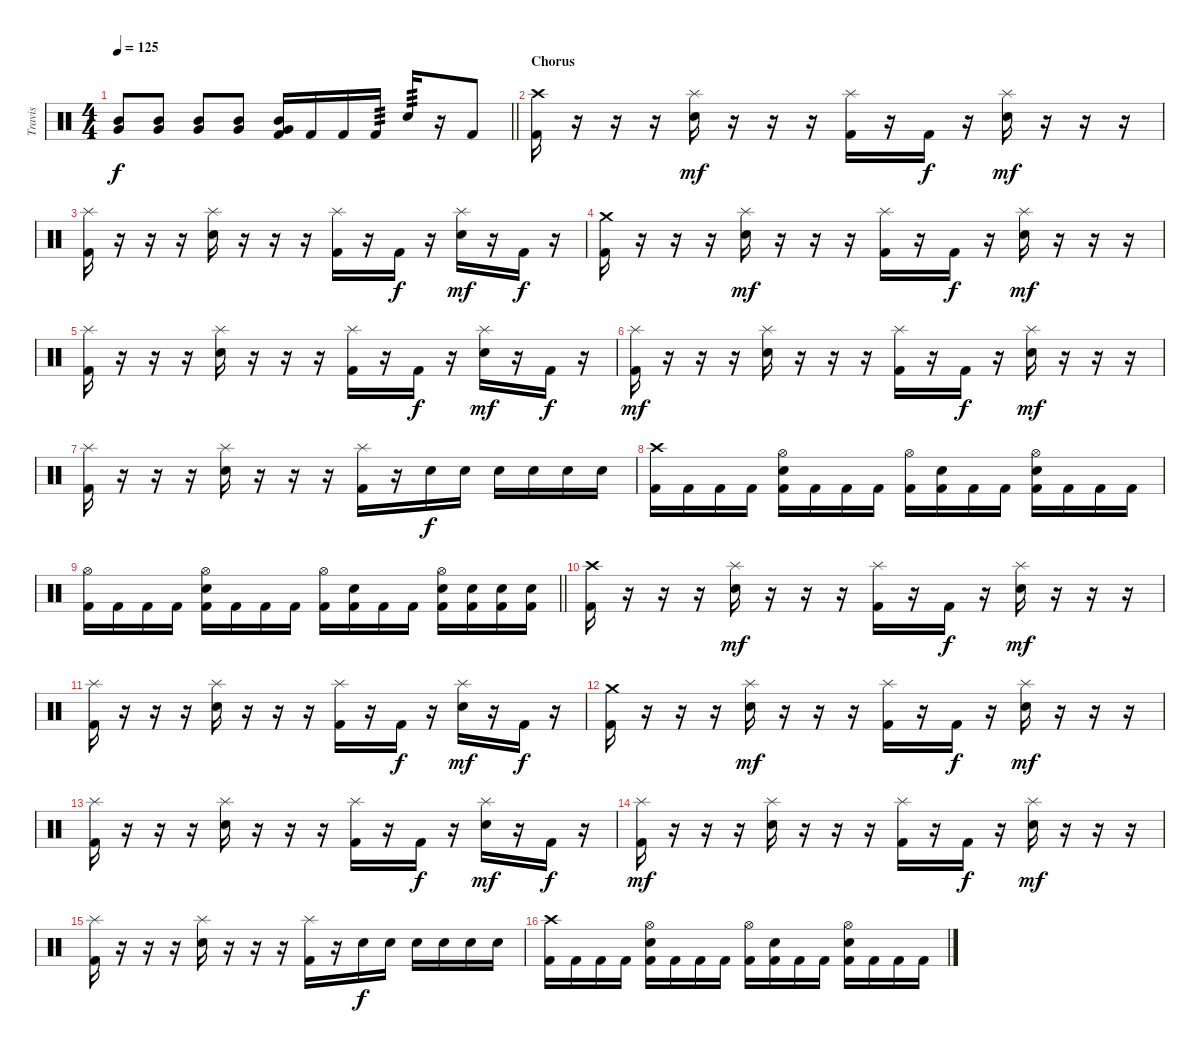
\track ("Travis" "Travis") {instrument percussion}
\staff {score}
\articulation defaults
\ts (4 4)
\tempo 125
\clef neutral
\barLineRight lightlight
\ks c
("Mid Tom (hit)" "Very Low Tom (hit)").8{dy f} ("Mid Tom (hit)" "Very Low Tom (hit)").8 ("Mid Tom (hit)" "Very Low Tom (hit)").8 ("Mid Tom (hit)" "Very Low Tom (hit)").8 ("Very Low Tom (hit)" "Mid Tom (hit)" "Kick (hit) 2").16 "Kick (hit) 2".16 "Kick (hit) 2".16 "Kick (hit) 2".16{tp 3} "Electric Snare (hit)".16{tp 3} r.16 "Kick (hit) 2".8 |
\section ("" "Chorus")
("Crash high (hit)" "Kick (hit) 2").16 r.16 r.16 r.16 ("Splash (hit)" "Electric Snare (hit)").16{dy mf} r.16 r.16 r.16 ("Splash (hit)" "Kick (hit) 2").16 r.16 "Kick (hit) 2".16{dy f} r.16 ("Splash (hit)" "Electric Snare (hit)").16{dy mf} r.16 r.16 r.16 |
("Splash (hit)" "Kick (hit) 2").16 r.16 r.16 r.16 ("Splash (hit)" "Electric Snare (hit)").16 r.16 r.16 r.16 ("Splash (hit)" "Kick (hit) 2").16 r.16 "Kick (hit) 2".16{dy f} r.16 ("Splash (hit)" "Electric Snare (hit)").16{dy mf} r.16 "Kick (hit) 2".16{dy f} r.16 |
("Crash medium (hit)" "Kick (hit) 2").16 r.16 r.16 r.16 ("Splash (hit)" "Electric Snare (hit)").16{dy mf} r.16 r.16 r.16 ("Splash (hit)" "Kick (hit) 2").16 r.16 "Kick (hit) 2".16{dy f} r.16 ("Splash (hit)" "Electric Snare (hit)").16{dy mf} r.16 r.16 r.16 |
("Splash (hit)" "Kick (hit) 2").16 r.16 r.16 r.16 ("Splash (hit)" "Electric Snare (hit)").16 r.16 r.16 r.16 ("Splash (hit)" "Kick (hit) 2").16 r.16 "Kick (hit) 2".16{dy f} r.16 ("Splash (hit)" "Electric Snare (hit)").16{dy mf} r.16 "Kick (hit) 2".16{dy f} r.16 |
("Splash (hit)" "Kick (hit) 2").16{dy mf} r.16 r.16 r.16 ("Splash (hit)" "Electric Snare (hit)").16 r.16 r.16 r.16 ("Splash (hit)" "Kick (hit) 2").16 r.16 "Kick (hit) 2".16{dy f} r.16 ("Splash (hit)" "Electric Snare (hit)").16{dy mf} r.16 r.16 r.16 |
("Splash (hit)" "Kick (hit) 2").16 r.16 r.16 r.16 ("Splash (hit)" "Electric Snare (hit)").16 r.16 r.16 r.16 ("Splash (hit)" "Kick (hit) 2").16 r.16 "Electric Snare (hit)".16{dy f} "Electric Snare (hit)".16 "Electric Snare (hit)".16 "Electric Snare (hit)".16 "Electric Snare (hit)".16 "Electric Snare (hit)".16 |
("Crash high (hit)" "Kick (hit) 2").16 "Kick (hit) 2".16 "Kick (hit) 2".16 "Kick (hit) 2".16 ("Hi-Hat (open)" "Electric Snare (hit)" "Kick (hit) 2").16 "Kick (hit) 2".16 "Kick (hit) 2".16 "Kick (hit) 2".16 ("Hi-Hat (open)" "Kick (hit) 2").16 ("Electric Snare (hit)" "Kick (hit) 2").16 "Kick (hit) 2".16 "Kick (hit) 2".16 ("Hi-Hat (open)" "Electric Snare (hit)" "Kick (hit) 2").16 "Kick (hit) 2".16 "Kick (hit) 2".16 "Kick (hit) 2".16 |
\barLineRight lightlight
("Hi-Hat (open)" "Kick (hit) 2").16 "Kick (hit) 2".16 "Kick (hit) 2".16 "Kick (hit) 2".16 ("Hi-Hat (open)" "Electric Snare (hit)" "Kick (hit) 2").16 "Kick (hit) 2".16 "Kick (hit) 2".16 "Kick (hit) 2".16 ("Hi-Hat (open)" "Kick (hit) 2").16 ("Electric Snare (hit)" "Kick (hit) 2").16 "Kick (hit) 2".16 "Kick (hit) 2".16 ("Hi-Hat (open)" "Electric Snare (hit)" "Kick (hit) 2").16 ("Electric Snare (hit)" "Kick (hit) 2").16 ("Electric Snare (hit)" "Kick (hit) 2").16 ("Electric Snare (hit)" "Kick (hit) 2").16 |
("Crash high (hit)" "Kick (hit) 2").16 r.16 r.16 r.16 ("Splash (hit)" "Electric Snare (hit)").16{dy mf} r.16 r.16 r.16 ("Splash (hit)" "Kick (hit) 2").16 r.16 "Kick (hit) 2".16{dy f} r.16 ("Splash (hit)" "Electric Snare (hit)").16{dy mf} r.16 r.16 r.16 |
("Splash (hit)" "Kick (hit) 2").16 r.16 r.16 r.16 ("Splash (hit)" "Electric Snare (hit)").16 r.16 r.16 r.16 ("Splash (hit)" "Kick (hit) 2").16 r.16 "Kick (hit) 2".16{dy f} r.16 ("Splash (hit)" "Electric Snare (hit)").16{dy mf} r.16 "Kick (hit) 2".16{dy f} r.16 |
("Crash medium (hit)" "Kick (hit) 2").16 r.16 r.16 r.16 ("Splash (hit)" "Electric Snare (hit)").16{dy mf} r.16 r.16 r.16 ("Splash (hit)" "Kick (hit) 2").16 r.16 "Kick (hit) 2".16{dy f} r.16 ("Splash (hit)" "Electric Snare (hit)").16{dy mf} r.16 r.16 r.16 |
("Splash (hit)" "Kick (hit) 2").16 r.16 r.16 r.16 ("Splash (hit)" "Electric Snare (hit)").16 r.16 r.16 r.16 ("Splash (hit)" "Kick (hit) 2").16 r.16 "Kick (hit) 2".16{dy f} r.16 ("Splash (hit)" "Electric Snare (hit)").16{dy mf} r.16 "Kick (hit) 2".16{dy f} r.16 |
("Splash (hit)" "Kick (hit) 2").16{dy mf} r.16 r.16 r.16 ("Splash (hit)" "Electric Snare (hit)").16 r.16 r.16 r.16 ("Splash (hit)" "Kick (hit) 2").16 r.16 "Kick (hit) 2".16{dy f} r.16 ("Splash (hit)" "Electric Snare (hit)").16{dy mf} r.16 r.16 r.16 |
("Splash (hit)" "Kick (hit) 2").16 r.16 r.16 r.16 ("Splash (hit)" "Electric Snare (hit)").16 r.16 r.16 r.16 ("Splash (hit)" "Kick (hit) 2").16 r.16 "Electric Snare (hit)".16{dy f} "Electric Snare (hit)".16 "Electric Snare (hit)".16 "Electric Snare (hit)".16 "Electric Snare (hit)".16 "Electric Snare (hit)".16 |
("Crash high (hit)" "Kick (hit) 2").16 "Kick (hit) 2".16 "Kick (hit) 2".16 "Kick (hit) 2".16 ("Hi-Hat (open)" "Electric Snare (hit)" "Kick (hit) 2").16 "Kick (hit) 2".16 "Kick (hit) 2".16 "Kick (hit) 2".16 ("Hi-Hat (open)" "Kick (hit) 2").16 ("Electric Snare (hit)" "Kick (hit) 2").16 "Kick (hit) 2".16 "Kick (hit) 2".16 ("Hi-Hat (open)" "Electric Snare (hit)" "Kick (hit) 2").16 "Kick (hit) 2".16 "Kick (hit) 2".16 "Kick (hit) 2".16
